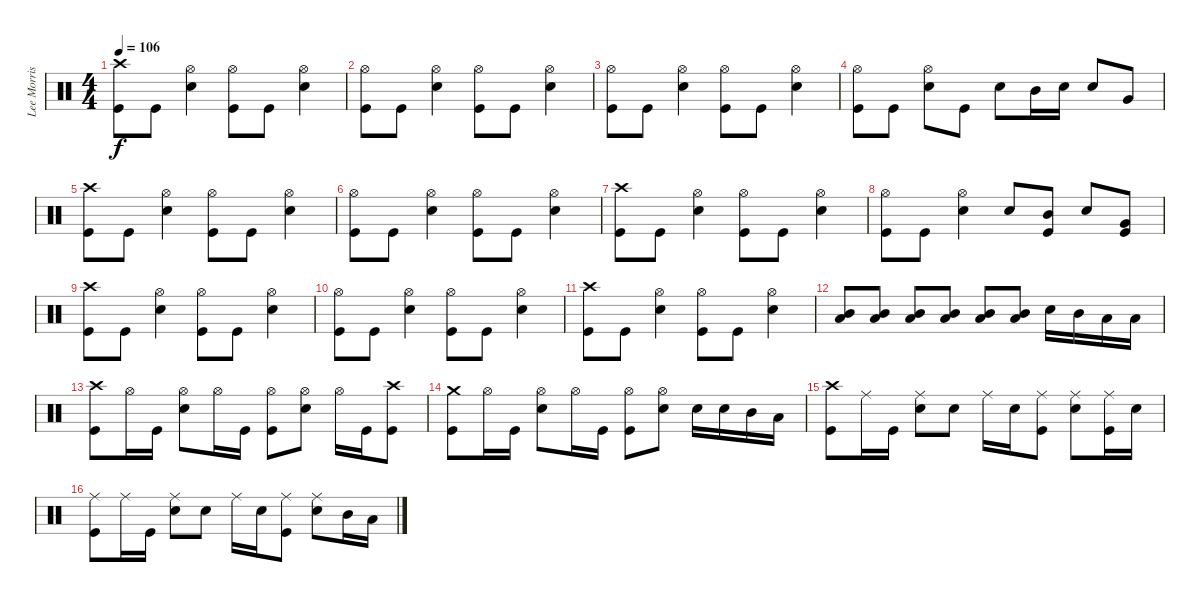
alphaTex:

\track ("Lee Morris" "Lee Morris") {instrument percussion}
\staff {score}
\articulation defaults
\ts (4 4)
\tempo 106
\clef neutral
\ks c
("Kick (hit)" "Crash high (hit)").8{dy f} "Kick (hit)".8 ("Snare (hit) 2" "Hi-Hat (open)").4 ("Kick (hit)" "Hi-Hat (open)").8 "Kick (hit)".8 ("Snare (hit) 2" "Hi-Hat (open)").4 |
("Kick (hit)" "Hi-Hat (open)").8 "Kick (hit)".8 ("Snare (hit) 2" "Hi-Hat (open)").4 ("Kick (hit)" "Hi-Hat (open)").8 "Kick (hit)".8 ("Snare (hit) 2" "Hi-Hat (open)").4 |
("Kick (hit)" "Hi-Hat (open)").8 "Kick (hit)".8 ("Snare (hit) 2" "Hi-Hat (open)").4 ("Kick (hit)" "Hi-Hat (open)").8 "Kick (hit)".8 ("Snare (hit) 2" "Hi-Hat (open)").4 |
("Kick (hit)" "Hi-Hat (open)").8 "Kick (hit)".8 ("Snare (hit) 2" "Hi-Hat (open)").8 "Kick (hit)".8 "Snare (hit) 2".8 "Mid Tom (hit)".16 "Snare (hit) 2".16 "Snare (hit) 2".8 "Very Low Tom (hit)".8 |
("Kick (hit)" "Crash high (hit)").8 "Kick (hit)".8 ("Snare (hit) 2" "Hi-Hat (open)").4 ("Kick (hit)" "Hi-Hat (open)").8 "Kick (hit)".8 ("Snare (hit) 2" "Hi-Hat (open)").4 |
("Kick (hit)" "Hi-Hat (open)").8 "Kick (hit)".8 ("Snare (hit) 2" "Hi-Hat (open)").4 ("Kick (hit)" "Hi-Hat (open)").8 "Kick (hit)".8 ("Snare (hit) 2" "Hi-Hat (open)").4 |
("Kick (hit)" "Crash high (hit)").8 "Kick (hit)".8 ("Snare (hit) 2" "Hi-Hat (open)").4 ("Kick (hit)" "Hi-Hat (open)").8 "Kick (hit)".8 ("Snare (hit) 2" "Hi-Hat (open)").4 |
("Kick (hit)" "Hi-Hat (open)").8 "Kick (hit)".8 ("Snare (hit) 2" "Hi-Hat (open)").4 "Snare (hit) 2".8 ("Kick (hit)" "Mid Tom (hit)").8 "Snare (hit) 2".8 ("Kick (hit)" "Very Low Tom (hit)").8 |
("Kick (hit)" "Crash high (hit)").8 "Kick (hit)".8 ("Snare (hit) 2" "Hi-Hat (open)").4 ("Kick (hit)" "Hi-Hat (open)").8 "Kick (hit)".8 ("Snare (hit) 2" "Hi-Hat (open)").4 |
("Kick (hit)" "Hi-Hat (open)").8 "Kick (hit)".8 ("Snare (hit) 2" "Hi-Hat (open)").4 ("Kick (hit)" "Hi-Hat (open)").8 "Kick (hit)".8 ("Snare (hit) 2" "Hi-Hat (open)").4 |
("Kick (hit)" "Crash high (hit)").8 "Kick (hit)".8 ("Snare (hit) 2" "Hi-Hat (open)").4 ("Kick (hit)" "Hi-Hat (open)").8 "Kick (hit)".8 ("Snare (hit) 2" "Hi-Hat (open)").4 |
("Mid Tom (hit)" "Low Tom (hit)").8 ("Mid Tom (hit)" "Low Tom (hit)").8 ("Mid Tom (hit)" "Low Tom (hit)").8 ("Mid Tom (hit)" "Low Tom (hit)").8 ("Mid Tom (hit)" "Low Tom (hit)").8 ("Mid Tom (hit)" "Low Tom (hit)").8 "Snare (hit) 2".16 "Mid Tom (hit)".16 "Low Tom (hit)".16 "Low Tom (hit)".16 |
("Kick (hit)" "Crash high (hit)").8 "Hi-Hat (open)".16 "Kick (hit)".16 ("Snare (hit) 2" "Hi-Hat (open)").8 "Hi-Hat (open)".16 "Kick (hit)".16 ("Kick (hit)" "Hi-Hat (open)").8 ("Snare (hit) 2" "Hi-Hat (open)").8 "Hi-Hat (open)".16 "Kick (hit)".16 ("Kick (hit)" "Crash high (hit)").8 |
("Kick (hit)" "Crash medium (hit)").8 "Hi-Hat (open)".16 "Kick (hit)".16 ("Snare (hit) 2" "Hi-Hat (open)").8 "Hi-Hat (open)".16 "Kick (hit)".16 ("Kick (hit)" "Hi-Hat (open)").8 ("Snare (hit) 2" "Hi-Hat (open)").8 "Snare (hit) 2".16 "Snare (hit) 2".16 "Mid Tom (hit)".16 "Low Tom (hit)".16 |
("Kick (hit)" "Crash high (hit)").8 "Ride (middle)".16 "Kick (hit)".16 ("Snare (hit) 2" "Ride (middle)").8 "Snare (hit) 2".8 "Ride (middle)".16 "Snare (hit) 2".16 ("Kick (hit)" "Ride (middle)").8 ("Snare (hit) 2" "Ride (middle)").8 ("Kick (hit)" "Ride (middle)").16 "Snare (hit) 2".16 |
("Kick (hit)" "Ride (middle)").8 "Ride (middle)".16 "Kick (hit)".16 ("Snare (hit) 2" "Ride (middle)").8 "Snare (hit) 2".8 "Ride (middle)".16 "Snare (hit) 2".16 ("Kick (hit)" "Ride (middle)").8 ("Snare (hit) 2" "Ride (middle)").8 "Mid Tom (hit)".16 "Low Tom (hit)".16
